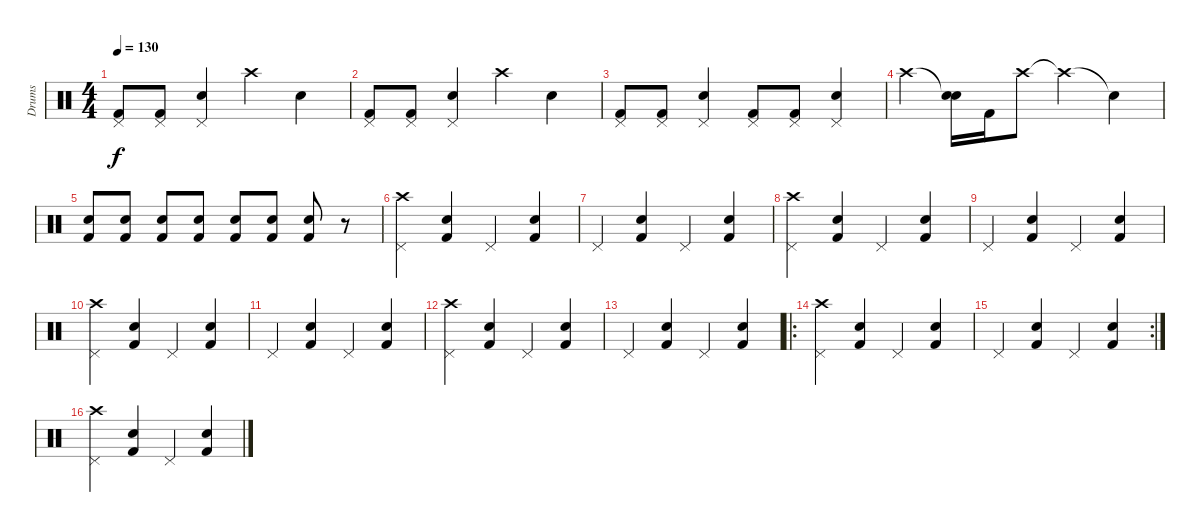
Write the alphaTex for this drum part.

\track ("Drums" "Drums") {instrument percussion}
\staff {score}
\articulation defaults
\ts (4 4)
\tempo 130
\clef neutral
\ks c
("Pedal Hi-Hat (hit)" "Kick (hit) 2").8{dy f} ("Pedal Hi-Hat (hit)" "Kick (hit) 2").8 ("Pedal Hi-Hat (hit)" "Snare (hit) 2").4 "Crash high (hit)".4 "Snare (hit) 2".4 |
("Pedal Hi-Hat (hit)" "Kick (hit) 2").8 ("Pedal Hi-Hat (hit)" "Kick (hit) 2").8 ("Pedal Hi-Hat (hit)" "Snare (hit) 2").4 "Crash high (hit)".4 "Snare (hit) 2".4 |
("Pedal Hi-Hat (hit)" "Kick (hit) 2").8 ("Pedal Hi-Hat (hit)" "Kick (hit) 2").8 ("Pedal Hi-Hat (hit)" "Snare (hit) 2").4 ("Pedal Hi-Hat (hit)" "Kick (hit) 2").8 ("Pedal Hi-Hat (hit)" "Kick (hit) 2").8 ("Pedal Hi-Hat (hit)" "Snare (hit) 2").4 |
"Crash high (hit)".4 ("Snare (hit)"{t} "Snare (hit) 2").16 "Kick (hit) 2".16 "Crash high (hit)".8 "Crash high (hit)"{t}.4 "Snare (hit)"{t}.4 |
("Snare (hit) 2" "Kick (hit) 2").8 ("Snare (hit) 2" "Kick (hit) 2").8 ("Snare (hit) 2" "Kick (hit) 2").8 ("Snare (hit) 2" "Kick (hit) 2").8 ("Snare (hit) 2" "Kick (hit) 2").8 ("Snare (hit) 2" "Kick (hit) 2").8 ("Snare (hit) 2" "Kick (hit) 2").8 r.8 |
("Crash high (hit)" "Pedal Hi-Hat (hit)").4 ("Snare (hit) 2" "Kick (hit) 2").4 "Pedal Hi-Hat (hit)".4 ("Snare (hit) 2" "Kick (hit) 2").4 |
"Pedal Hi-Hat (hit)".4 ("Snare (hit) 2" "Kick (hit) 2").4 "Pedal Hi-Hat (hit)".4 ("Snare (hit) 2" "Kick (hit) 2").4 |
("Crash high (hit)" "Pedal Hi-Hat (hit)").4 ("Snare (hit) 2" "Kick (hit) 2").4 "Pedal Hi-Hat (hit)".4 ("Snare (hit) 2" "Kick (hit) 2").4 |
"Pedal Hi-Hat (hit)".4 ("Snare (hit) 2" "Kick (hit) 2").4 "Pedal Hi-Hat (hit)".4 ("Snare (hit) 2" "Kick (hit) 2").4 |
("Crash high (hit)" "Pedal Hi-Hat (hit)").4 ("Snare (hit) 2" "Kick (hit) 2").4 "Pedal Hi-Hat (hit)".4 ("Snare (hit) 2" "Kick (hit) 2").4 |
"Pedal Hi-Hat (hit)".4 ("Snare (hit) 2" "Kick (hit) 2").4 "Pedal Hi-Hat (hit)".4 ("Snare (hit) 2" "Kick (hit) 2").4 |
("Crash high (hit)" "Pedal Hi-Hat (hit)").4 ("Snare (hit) 2" "Kick (hit) 2").4 "Pedal Hi-Hat (hit)".4 ("Snare (hit) 2" "Kick (hit) 2").4 |
"Pedal Hi-Hat (hit)".4 ("Snare (hit) 2" "Kick (hit) 2").4 "Pedal Hi-Hat (hit)".4 ("Snare (hit) 2" "Kick (hit) 2").4 |
\ro
("Crash high (hit)" "Pedal Hi-Hat (hit)").4 ("Snare (hit) 2" "Kick (hit) 2").4 "Pedal Hi-Hat (hit)".4 ("Snare (hit) 2" "Kick (hit) 2").4 |
\rc 2 "Pedal Hi-Hat (hit)".4
("Snare (hit) 2" "Kick (hit) 2").4 "Pedal Hi-Hat (hit)".4 ("Snare (hit) 2" "Kick (hit) 2").4 |
("Crash high (hit)" "Pedal Hi-Hat (hit)").4 ("Snare (hit) 2" "Kick (hit) 2").4 "Pedal Hi-Hat (hit)".4 ("Snare (hit) 2" "Kick (hit) 2").4
